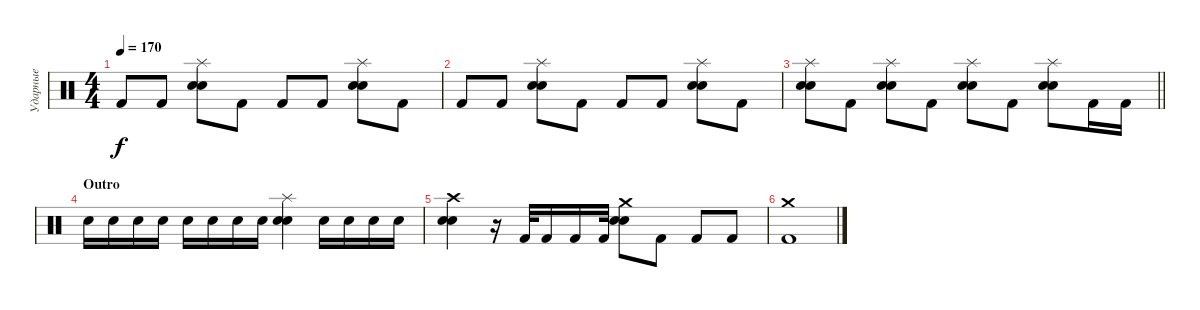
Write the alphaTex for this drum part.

\track ("Ударные" "Ударные") {instrument percussion}
\staff {score}
\articulation defaults
\ts (4 4)
\tempo 170
\clef neutral
\ks c "Kick (hit) 2".8{dy f} "Kick (hit) 2".8
("Splash (hit)" "Electric Snare (hit)" "Snare (hit) 2").8 "Kick (hit) 2".8 "Kick (hit) 2".8 "Kick (hit) 2".8 ("Splash (hit)" "Electric Snare (hit)" "Snare (hit) 2").8 "Kick (hit) 2".8 |
"Kick (hit) 2".8 "Kick (hit) 2".8 ("Splash (hit)" "Electric Snare (hit)" "Snare (hit) 2").8 "Kick (hit) 2".8 "Kick (hit) 2".8 "Kick (hit) 2".8 ("Splash (hit)" "Electric Snare (hit)" "Snare (hit) 2").8 "Kick (hit) 2".8 |
\barLineRight lightlight
("Splash (hit)" "Electric Snare (hit)" "Snare (hit) 2").8 "Kick (hit) 2".8 ("Splash (hit)" "Electric Snare (hit)" "Snare (hit) 2").8 "Kick (hit) 2".8 ("Splash (hit)" "Electric Snare (hit)" "Snare (hit) 2").8 "Kick (hit) 2".8 ("Splash (hit)" "Electric Snare (hit)" "Snare (hit) 2").8 "Kick (hit) 2".16 "Kick (hit) 2".16 |
\section ("" "Outro")
"Electric Snare (hit)".16 "Electric Snare (hit)".16 "Electric Snare (hit)".16 "Electric Snare (hit)".16 "Electric Snare (hit)".16 "Electric Snare (hit)".16 "Electric Snare (hit)".16 "Electric Snare (hit)".16 ("Splash (hit)" "Electric Snare (hit)" "Snare (hit) 2").4 "Electric Snare (hit)".16 "Electric Snare (hit)".16 "Electric Snare (hit)".16 "Electric Snare (hit)".16 |
("Crash high (hit)" "Electric Snare (hit)" "Snare (hit) 2").4 r.16 "Kick (hit) 2".32 "Kick (hit) 2".16 "Kick (hit) 2".16 "Kick (hit) 2".32 ("Crash medium (hit)" "Electric Snare (hit)" "Snare (hit) 2").8 "Kick (hit) 2".8 "Kick (hit) 2".8 "Kick (hit) 2".8 |
("Crash medium (hit)" "Kick (hit) 2").1
